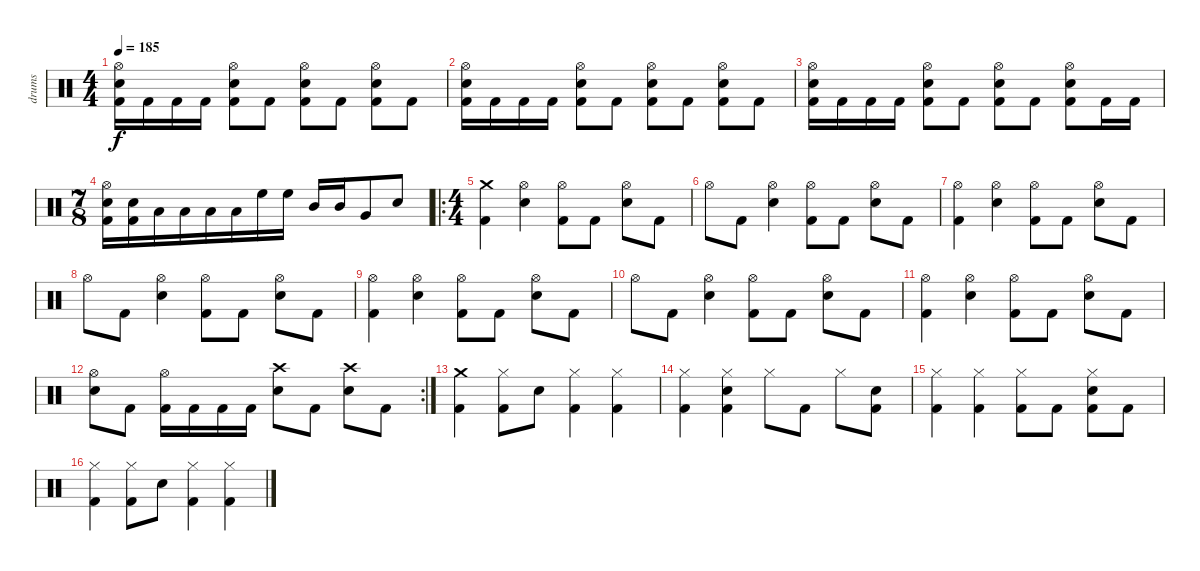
\track ("drums" "drums") {instrument percussion}
\staff {score}
\articulation defaults
\ts (4 4)
\tempo 185
\clef neutral
\ks c
("Hi-Hat (open)" "Electric Snare (hit)" "Kick (hit) 2").16{dy f} "Kick (hit) 2".16 "Kick (hit) 2".16 "Kick (hit) 2".16 ("Hi-Hat (open)" "Electric Snare (hit)" "Kick (hit) 2").8 "Kick (hit) 2".8 ("Hi-Hat (open)" "Electric Snare (hit)" "Kick (hit) 2").8 "Kick (hit) 2".8 ("Hi-Hat (open)" "Electric Snare (hit)" "Kick (hit) 2").8 "Kick (hit) 2".8 |
("Hi-Hat (open)" "Electric Snare (hit)" "Kick (hit) 2").16 "Kick (hit) 2".16 "Kick (hit) 2".16 "Kick (hit) 2".16 ("Hi-Hat (open)" "Electric Snare (hit)" "Kick (hit) 2").8 "Kick (hit) 2".8 ("Hi-Hat (open)" "Electric Snare (hit)" "Kick (hit) 2").8 "Kick (hit) 2".8 ("Hi-Hat (open)" "Electric Snare (hit)" "Kick (hit) 2").8 "Kick (hit) 2".8 |
("Hi-Hat (open)" "Electric Snare (hit)" "Kick (hit) 2").16 "Kick (hit) 2".16 "Kick (hit) 2".16 "Kick (hit) 2".16 ("Hi-Hat (open)" "Electric Snare (hit)" "Kick (hit) 2").8 "Kick (hit) 2".8 ("Hi-Hat (open)" "Electric Snare (hit)" "Kick (hit) 2").8 "Kick (hit) 2".8 ("Hi-Hat (open)" "Electric Snare (hit)" "Kick (hit) 2").8 "Kick (hit) 2".16 "Kick (hit) 2".16 |
\ts (7 8)
("Hi-Hat (open)" "Electric Snare (hit)" "Kick (hit) 2").16 ("Electric Snare (hit)" "Kick (hit) 2").16 "Low Tom (hit)".16 "Low Tom (hit)".16 "Low Floor Tom (hit)".16 "Low Floor Tom (hit)".16 "High Floor Tom (hit)".16 "High Floor Tom (hit)".16 "Mid Tom (hit)".16 "Mid Tom (hit)".16 "Very Low Tom (hit)".8 "Electric Snare (hit)".8 |
\ro
\ts (4 4)
("Crash medium (hit)" "Kick (hit) 2").4 ("Hi-Hat (open)" "Electric Snare (hit)").4 ("Hi-Hat (open)" "Kick (hit) 2").8 "Kick (hit) 2".8 ("Hi-Hat (open)" "Electric Snare (hit)").8 "Kick (hit) 2".8 |
"Hi-Hat (open)".8 "Kick (hit) 2".8 ("Hi-Hat (open)" "Electric Snare (hit)").4 ("Hi-Hat (open)" "Kick (hit) 2").8 "Kick (hit) 2".8 ("Hi-Hat (open)" "Electric Snare (hit)").8 "Kick (hit) 2".8 |
("Hi-Hat (open)" "Kick (hit) 2").4 ("Hi-Hat (open)" "Electric Snare (hit)").4 ("Hi-Hat (open)" "Kick (hit) 2").8 "Kick (hit) 2".8 ("Hi-Hat (open)" "Electric Snare (hit)").8 "Kick (hit) 2".8 |
"Hi-Hat (open)".8 "Kick (hit) 2".8 ("Hi-Hat (open)" "Electric Snare (hit)").4 ("Hi-Hat (open)" "Kick (hit) 2").8 "Kick (hit) 2".8 ("Hi-Hat (open)" "Electric Snare (hit)").8 "Kick (hit) 2".8 |
("Hi-Hat (open)" "Kick (hit) 2").4 ("Hi-Hat (open)" "Electric Snare (hit)").4 ("Hi-Hat (open)" "Kick (hit) 2").8 "Kick (hit) 2".8 ("Hi-Hat (open)" "Electric Snare (hit)").8 "Kick (hit) 2".8 |
"Hi-Hat (open)".8 "Kick (hit) 2".8 ("Hi-Hat (open)" "Electric Snare (hit)").4 ("Hi-Hat (open)" "Kick (hit) 2").8 "Kick (hit) 2".8 ("Hi-Hat (open)" "Electric Snare (hit)").8 "Kick (hit) 2".8 |
("Hi-Hat (open)" "Kick (hit) 2").4 ("Hi-Hat (open)" "Electric Snare (hit)").4 ("Hi-Hat (open)" "Kick (hit) 2").8 "Kick (hit) 2".8 ("Hi-Hat (open)" "Electric Snare (hit)").8 "Kick (hit) 2".8 |
\rc 2
("Hi-Hat (open)" "Electric Snare (hit)").8 "Kick (hit) 2".8 ("Hi-Hat (open)" "Kick (hit) 2").16 "Kick (hit) 2".16 "Kick (hit) 2".16 "Kick (hit) 2".16 ("Crash high (hit)" "Electric Snare (hit)").8 "Kick (hit) 2".8 ("Crash high (hit)" "Electric Snare (hit)").8 "Kick (hit) 2".8 |
("Crash medium (hit)" "Kick (hit) 2").4 ("Hi-Hat (closed)" "Kick (hit) 2").8 "Electric Snare (hit)".8 ("Hi-Hat (closed)" "Kick (hit) 2").4 ("Hi-Hat (closed)" "Kick (hit) 2").4 |
("Hi-Hat (closed)" "Kick (hit) 2").4 ("Hi-Hat (closed)" "Electric Snare (hit)" "Kick (hit) 2").4 "Hi-Hat (closed)".8 "Kick (hit) 2".8 "Hi-Hat (closed)".8 ("Electric Snare (hit)" "Kick (hit) 2").8 |
("Hi-Hat (closed)" "Kick (hit) 2").4 ("Hi-Hat (closed)" "Kick (hit) 2").4 ("Hi-Hat (closed)" "Kick (hit) 2").8 "Kick (hit) 2".8 ("Hi-Hat (closed)" "Electric Snare (hit)" "Kick (hit) 2").8 "Kick (hit) 2".8 |
("Hi-Hat (closed)" "Kick (hit) 2").4 ("Hi-Hat (closed)" "Kick (hit) 2").8 "Electric Snare (hit)".8 ("Hi-Hat (closed)" "Kick (hit) 2").4 ("Hi-Hat (closed)" "Kick (hit) 2").4
